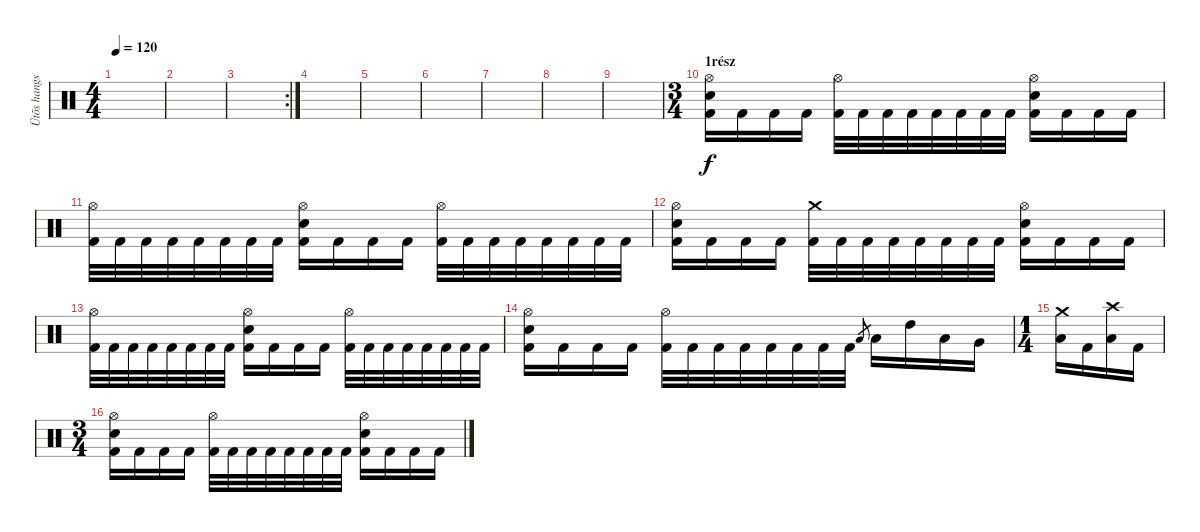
\track ("Ütõs hangszer" "Ütõs hangs") {instrument percussion}
\staff {score}
\articulation defaults
\ts (4 4)
\tempo 120
\clef neutral
\ks c
|
|
\rc 2
|
|
|
|
|
|
|
\ts (3 4)
\section ("" "1rész")
("Hi-Hat (open)" "Electric Snare (hit)" "Kick (hit) 2").16 "Kick (hit) 2".16 "Kick (hit) 2".16 "Kick (hit) 2".16 ("Hi-Hat (open)" "Kick (hit) 2").32 "Kick (hit) 2".32 "Kick (hit) 2".32 "Kick (hit) 2".32 "Kick (hit) 2".32 "Kick (hit) 2".32 "Kick (hit) 2".32 "Kick (hit) 2".32 ("Hi-Hat (open)" "Electric Snare (hit)" "Kick (hit) 2").16 "Kick (hit) 2".16 "Kick (hit) 2".16 "Kick (hit) 2".16 |
("Hi-Hat (open)" "Kick (hit) 2").32 "Kick (hit) 2".32 "Kick (hit) 2".32 "Kick (hit) 2".32 "Kick (hit) 2".32 "Kick (hit) 2".32 "Kick (hit) 2".32 "Kick (hit) 2".32 ("Hi-Hat (open)" "Electric Snare (hit)" "Kick (hit) 2").16 "Kick (hit) 2".16 "Kick (hit) 2".16 "Kick (hit) 2".16 ("Hi-Hat (open)" "Kick (hit) 2").32 "Kick (hit) 2".32 "Kick (hit) 2".32 "Kick (hit) 2".32 "Kick (hit) 2".32 "Kick (hit) 2".32 "Kick (hit) 2".32 "Kick (hit) 2".32 |
("Hi-Hat (open)" "Electric Snare (hit)" "Kick (hit) 2").16 "Kick (hit) 2".16 "Kick (hit) 2".16 "Kick (hit) 2".16 ("Crash medium (hit)" "Kick (hit) 2").32 "Kick (hit) 2".32 "Kick (hit) 2".32 "Kick (hit) 2".32 "Kick (hit) 2".32 "Kick (hit) 2".32 "Kick (hit) 2".32 "Kick (hit) 2".32 ("Hi-Hat (open)" "Electric Snare (hit)" "Kick (hit) 2").16 "Kick (hit) 2".16 "Kick (hit) 2".16 "Kick (hit) 2".16 |
("Hi-Hat (open)" "Kick (hit) 2").32 "Kick (hit) 2".32 "Kick (hit) 2".32 "Kick (hit) 2".32 "Kick (hit) 2".32 "Kick (hit) 2".32 "Kick (hit) 2".32 "Kick (hit) 2".32 ("Hi-Hat (open)" "Electric Snare (hit)" "Kick (hit) 2").16 "Kick (hit) 2".16 "Kick (hit) 2".16 "Kick (hit) 2".16 ("Hi-Hat (open)" "Kick (hit) 2").32 "Kick (hit) 2".32 "Kick (hit) 2".32 "Kick (hit) 2".32 "Kick (hit) 2".32 "Kick (hit) 2".32 "Kick (hit) 2".32 "Kick (hit) 2".32 |
("Hi-Hat (open)" "Electric Snare (hit)" "Kick (hit) 2").16 "Kick (hit) 2".16 "Kick (hit) 2".16 "Kick (hit) 2".16 ("Hi-Hat (open)" "Kick (hit) 2").32 "Kick (hit) 2".32 "Kick (hit) 2".32 "Kick (hit) 2".32 "Kick (hit) 2".32 "Kick (hit) 2".32 "Kick (hit) 2".32 "Kick (hit) 2".32 "Low Tom (hit)".8{gr} "Low Tom (hit)".16 "High Tom (hit)".16 "Low Tom (hit)".16 "Very Low Tom (hit)".16 |
\ts (1 4)
("Crash medium (hit)" "Low Floor Tom (hit)").16 "Kick (hit) 2".16 ("Crash high (hit)" "Low Floor Tom (hit)").16 "Kick (hit) 2".16 |
\ts (3 4)
("Hi-Hat (open)" "Electric Snare (hit)" "Kick (hit) 2").16 "Kick (hit) 2".16 "Kick (hit) 2".16 "Kick (hit) 2".16 ("Hi-Hat (open)" "Kick (hit) 2").32 "Kick (hit) 2".32 "Kick (hit) 2".32 "Kick (hit) 2".32 "Kick (hit) 2".32 "Kick (hit) 2".32 "Kick (hit) 2".32 "Kick (hit) 2".32 ("Hi-Hat (open)" "Electric Snare (hit)" "Kick (hit) 2").16 "Kick (hit) 2".16 "Kick (hit) 2".16 "Kick (hit) 2".16
